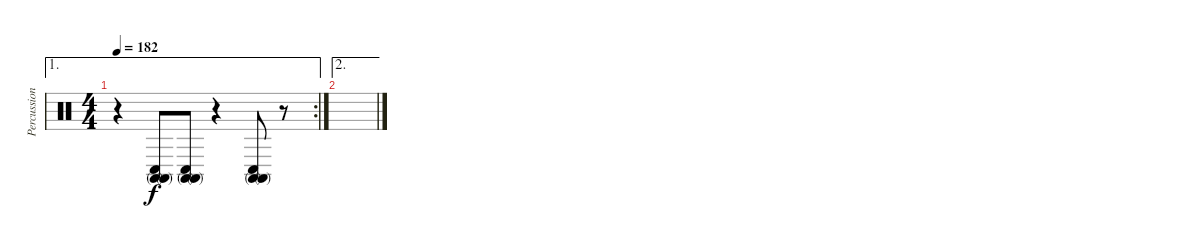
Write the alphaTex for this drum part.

\track ("Percussion" "Percussion") {instrument percussion}
\staff {score}
\articulation defaults
\ae 1
\rc 2
\ts (4 4)
\tempo 182
\clef neutral
\ks c
r.4{dy f} ("Conga high (mute)" "Conga high (mute)" "Conga low (hit)").8 ("Conga high (mute)" "Conga high (mute)" "Conga low (hit)").8 r.4 ("Conga high (mute)" "Conga high (mute)" "Conga low (hit)").8 r.8 |
\ae 2
